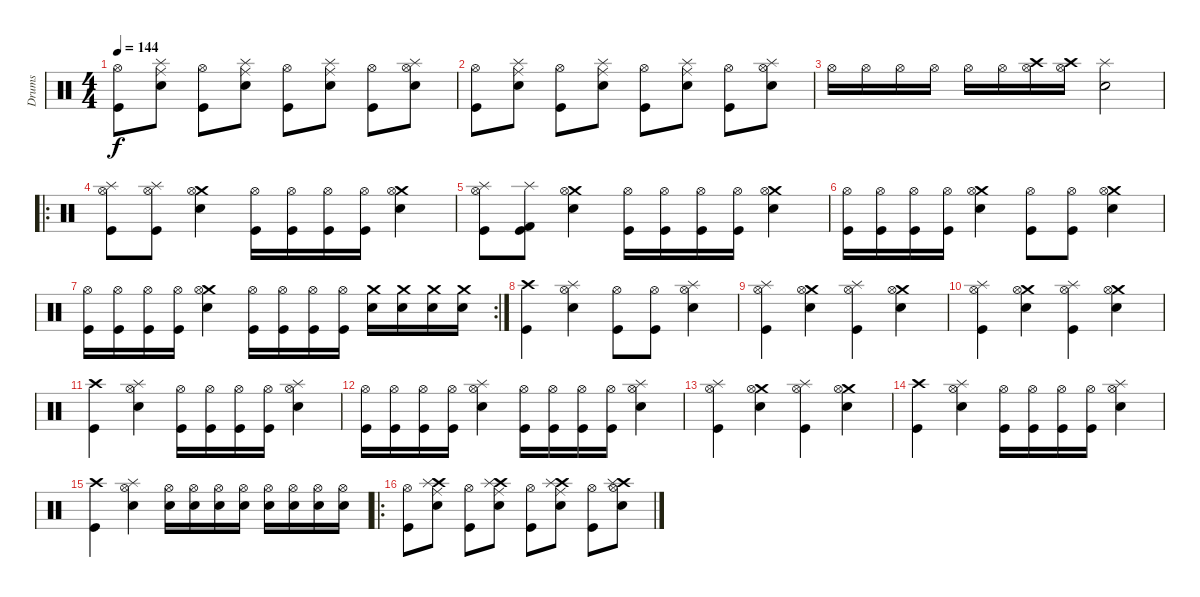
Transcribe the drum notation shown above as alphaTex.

\track ("Drums" "Drums") {instrument percussion}
\staff {score}
\articulation defaults
\ts (4 4)
\tempo 144
\clef neutral
\ks c
("Kick (hit)" "Hi-Hat (open)").8{dy f} ("Snare (hit) 2" "Ride (middle)" "Splash (hit)").8 ("Kick (hit)" "Hi-Hat (open)").8 ("Snare (hit) 2" "Ride (middle)" "Splash (hit)").8 ("Kick (hit)" "Hi-Hat (open)").8 ("Snare (hit) 2" "Ride (middle)" "Splash (hit)").8 ("Kick (hit)" "Hi-Hat (open)").8 ("Snare (hit) 2" "Hi-Hat (open)" "Splash (hit)").8 |
("Kick (hit)" "Hi-Hat (open)").8 ("Snare (hit) 2" "Ride (middle)" "Splash (hit)").8 ("Kick (hit)" "Hi-Hat (open)").8 ("Snare (hit) 2" "Ride (middle)" "Splash (hit)").8 ("Kick (hit)" "Hi-Hat (open)").8 ("Snare (hit) 2" "Ride (middle)" "Splash (hit)").8 ("Kick (hit)" "Hi-Hat (open)").8 ("Snare (hit) 2" "Hi-Hat (open)" "Splash (hit)").8 |
"Hi-Hat (open)".16 "Hi-Hat (open)".16 "Hi-Hat (open)".16 "Hi-Hat (open)".16 "Hi-Hat (open)".16 "Hi-Hat (open)".16 ("Hi-Hat (open)" "Crash high (hit)").16 ("Hi-Hat (open)" "Crash high (hit)").16 ("Snare (hit) 2" "Splash (hit)").2 |
\ro
("Kick (hit)" "Hi-Hat (open)" "Splash (hit)").8 ("Kick (hit)" "Hi-Hat (open)" "Splash (hit)").8 ("Snare (hit) 2" "Crash medium (hit)" "Hi-Hat (open)").4 ("Kick (hit)" "Hi-Hat (open)").16 ("Kick (hit)" "Hi-Hat (open)").16 ("Kick (hit)" "Hi-Hat (open)").16 ("Kick (hit)" "Hi-Hat (open)").16 ("Snare (hit) 2" "Crash medium (hit)" "Hi-Hat (open)").4 |
("Kick (hit)" "Hi-Hat (open)" "Splash (hit)").8 ("Kick (hit)" "Kick (hit) 2" "Splash (hit)").8 ("Snare (hit) 2" "Crash medium (hit)" "Hi-Hat (open)").4 ("Kick (hit)" "Hi-Hat (open)").16 ("Kick (hit)" "Hi-Hat (open)").16 ("Kick (hit)" "Hi-Hat (open)").16 ("Kick (hit)" "Hi-Hat (open)").16 ("Snare (hit) 2" "Crash medium (hit)" "Hi-Hat (open)").4 |
("Kick (hit)" "Hi-Hat (open)").16 ("Kick (hit)" "Hi-Hat (open)").16 ("Kick (hit)" "Hi-Hat (open)").16 ("Kick (hit)" "Hi-Hat (open)").16 ("Snare (hit) 2" "Crash medium (hit)" "Hi-Hat (open)").4 ("Kick (hit)" "Hi-Hat (open)").8 ("Kick (hit)" "Hi-Hat (open)").8 ("Snare (hit) 2" "Crash medium (hit)" "Hi-Hat (open)").4 |
\rc 2
("Kick (hit)" "Hi-Hat (open)").16 ("Kick (hit)" "Hi-Hat (open)").16 ("Kick (hit)" "Hi-Hat (open)").16 ("Kick (hit)" "Hi-Hat (open)").16 ("Snare (hit) 2" "Crash medium (hit)" "Hi-Hat (open)").4 ("Kick (hit)" "Hi-Hat (open)").16 ("Kick (hit)" "Hi-Hat (open)").16 ("Kick (hit)" "Hi-Hat (open)").16 ("Kick (hit)" "Hi-Hat (open)").16 ("Snare (hit) 2" "Crash medium (hit)").16 ("Snare (hit) 2" "Crash medium (hit)").16 ("Snare (hit) 2" "Crash medium (hit)").16 ("Snare (hit) 2" "Crash medium (hit)").16 |
("Kick (hit)" "Crash high (hit)").4 ("Snare (hit) 2" "Splash (hit)" "Hi-Hat (open)").4 ("Kick (hit)" "Hi-Hat (open)").8 ("Kick (hit)" "Hi-Hat (open)").8 ("Snare (hit) 2" "Splash (hit)" "Hi-Hat (open)").4 |
("Kick (hit)" "Hi-Hat (open)" "Splash (hit)").4 ("Snare (hit) 2" "Crash medium (hit)" "Hi-Hat (open)").4 ("Kick (hit)" "Hi-Hat (open)" "Splash (hit)").4 ("Snare (hit) 2" "Crash medium (hit)" "Hi-Hat (open)").4 |
("Kick (hit)" "Hi-Hat (open)" "Splash (hit)").4 ("Snare (hit) 2" "Crash medium (hit)" "Hi-Hat (open)").4 ("Kick (hit)" "Hi-Hat (open)" "Splash (hit)").4 ("Snare (hit) 2" "Crash medium (hit)" "Hi-Hat (open)").4 |
("Kick (hit)" "Crash high (hit)").4 ("Snare (hit) 2" "Splash (hit)" "Hi-Hat (open)").4 ("Kick (hit)" "Hi-Hat (open)").16 ("Kick (hit)" "Hi-Hat (open)").16 ("Kick (hit)" "Hi-Hat (open)").16 ("Kick (hit)" "Hi-Hat (open)").16 ("Snare (hit) 2" "Splash (hit)" "Hi-Hat (open)").4 |
("Kick (hit)" "Hi-Hat (open)").16 ("Kick (hit)" "Hi-Hat (open)").16 ("Kick (hit)" "Hi-Hat (open)").16 ("Kick (hit)" "Hi-Hat (open)").16 ("Snare (hit) 2" "Splash (hit)" "Hi-Hat (open)").4 ("Kick (hit)" "Hi-Hat (open)").16 ("Kick (hit)" "Hi-Hat (open)").16 ("Kick (hit)" "Hi-Hat (open)").16 ("Kick (hit)" "Hi-Hat (open)").16 ("Snare (hit) 2" "Splash (hit)" "Hi-Hat (open)").4 |
("Kick (hit)" "Hi-Hat (open)" "Splash (hit)").4 ("Snare (hit) 2" "Crash medium (hit)" "Hi-Hat (open)").4 ("Kick (hit)" "Hi-Hat (open)" "Splash (hit)").4 ("Snare (hit) 2" "Crash medium (hit)" "Hi-Hat (open)").4 |
("Kick (hit)" "Crash high (hit)").4 ("Snare (hit) 2" "Splash (hit)" "Hi-Hat (open)").4 ("Kick (hit)" "Hi-Hat (open)").16 ("Kick (hit)" "Hi-Hat (open)").16 ("Kick (hit)" "Hi-Hat (open)").16 ("Kick (hit)" "Hi-Hat (open)").16 ("Snare (hit) 2" "Splash (hit)" "Hi-Hat (open)").4 |
("Kick (hit)" "Crash high (hit)").4 ("Snare (hit) 2" "Splash (hit)" "Hi-Hat (open)").4 ("Snare (hit) 2" "Hi-Hat (open)").16 ("Snare (hit) 2" "Hi-Hat (open)").16 ("Snare (hit) 2" "Hi-Hat (open)").16 ("Snare (hit) 2" "Hi-Hat (open)").16 ("Snare (hit) 2" "Hi-Hat (open)").16 ("Snare (hit) 2" "Hi-Hat (open)").16 ("Snare (hit) 2" "Hi-Hat (open)").16 ("Snare (hit) 2" "Hi-Hat (open)").16 |
\ro
("Kick (hit)" "Hi-Hat (open)").8 ("Snare (hit) 2" "Ride (middle)" "Crash high (hit)" "Splash (hit)").8 ("Kick (hit)" "Hi-Hat (open)").8 ("Snare (hit) 2" "Ride (middle)" "Crash high (hit)" "Splash (hit)").8 ("Kick (hit)" "Hi-Hat (open)").8 ("Snare (hit) 2" "Ride (middle)" "Crash high (hit)" "Splash (hit)").8 ("Kick (hit)" "Hi-Hat (open)").8 ("Snare (hit) 2" "Hi-Hat (open)" "Crash high (hit)" "Splash (hit)").8
